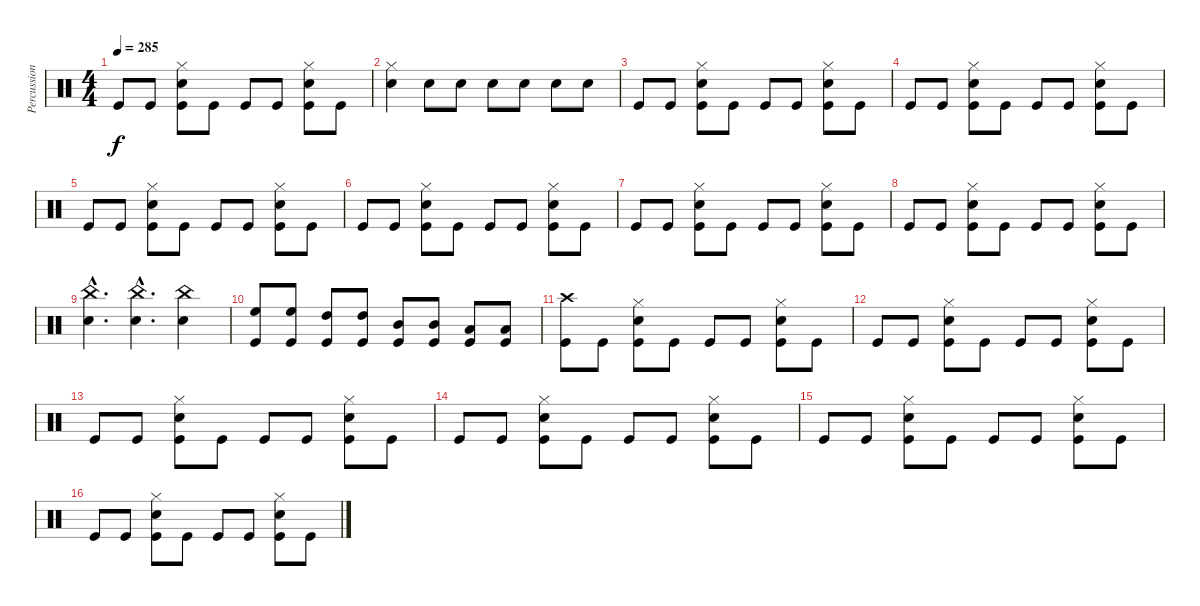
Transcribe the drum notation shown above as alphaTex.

\track ("Percussion" "Percussion") {instrument percussion}
\staff {score}
\articulation defaults
\ts (4 4)
\tempo 285
\clef neutral
\ks c "Kick (hit)".8{dy f} "Kick (hit)".8
("Snare (hit) 2" "Hi-Hat (closed)" "Kick (hit)").8 "Kick (hit)".8 "Kick (hit)".8 "Kick (hit)".8 ("Snare (hit) 2" "Hi-Hat (closed)" "Kick (hit)").8 "Kick (hit)".8 |
("Snare (hit) 2" "Hi-Hat (closed)").4 "Snare (hit) 2".8 "Snare (hit) 2".8 "Snare (hit) 2".8 "Snare (hit) 2".8 "Snare (hit) 2".8 "Snare (hit) 2".8 |
"Kick (hit)".8 "Kick (hit)".8 ("Snare (hit) 2" "Hi-Hat (closed)" "Kick (hit)").8 "Kick (hit)".8 "Kick (hit)".8 "Kick (hit)".8 ("Snare (hit) 2" "Hi-Hat (closed)" "Kick (hit)").8 "Kick (hit)".8 |
"Kick (hit)".8 "Kick (hit)".8 ("Snare (hit) 2" "Hi-Hat (closed)" "Kick (hit)").8 "Kick (hit)".8 "Kick (hit)".8 "Kick (hit)".8 ("Snare (hit) 2" "Hi-Hat (closed)" "Kick (hit)").8 "Kick (hit)".8 |
"Kick (hit)".8 "Kick (hit)".8 ("Snare (hit) 2" "Hi-Hat (closed)" "Kick (hit)").8 "Kick (hit)".8 "Kick (hit)".8 "Kick (hit)".8 ("Snare (hit) 2" "Hi-Hat (closed)" "Kick (hit)").8 "Kick (hit)".8 |
"Kick (hit)".8 "Kick (hit)".8 ("Snare (hit) 2" "Hi-Hat (closed)" "Kick (hit)").8 "Kick (hit)".8 "Kick (hit)".8 "Kick (hit)".8 ("Snare (hit) 2" "Hi-Hat (closed)" "Kick (hit)").8 "Kick (hit)".8 |
"Kick (hit)".8 "Kick (hit)".8 ("Snare (hit) 2" "Hi-Hat (closed)" "Kick (hit)").8 "Kick (hit)".8 "Kick (hit)".8 "Kick (hit)".8 ("Snare (hit) 2" "Hi-Hat (closed)" "Kick (hit)").8 "Kick (hit)".8 |
"Kick (hit)".8 "Kick (hit)".8 ("Snare (hit) 2" "Hi-Hat (closed)" "Kick (hit)").8 "Kick (hit)".8 "Kick (hit)".8 "Kick (hit)".8 ("Snare (hit) 2" "Hi-Hat (closed)" "Kick (hit)").8 "Kick (hit)".8 |
("Snare (hit) 2"{hac} "China (hit)"{hac}).4{d} ("Snare (hit) 2"{hac} "China (hit)"{hac}).4{d} ("Snare (hit) 2" "China (hit)").4 |
("High Floor Tom (hit)" "Kick (hit)").8 ("High Floor Tom (hit)" "Kick (hit)").8 ("High Tom (hit)" "Kick (hit)").8 ("High Tom (hit)" "Kick (hit)").8 ("Mid Tom (hit)" "Kick (hit)").8 ("Mid Tom (hit)" "Kick (hit)").8 ("Low Tom (hit)" "Kick (hit)").8 ("Low Tom (hit)" "Kick (hit)").8 |
("Crash high (hit)" "Kick (hit)").8 "Kick (hit)".8 ("Snare (hit) 2" "Hi-Hat (closed)" "Kick (hit)").8 "Kick (hit)".8 "Kick (hit)".8 "Kick (hit)".8 ("Snare (hit) 2" "Hi-Hat (closed)" "Kick (hit)").8 "Kick (hit)".8 |
"Kick (hit)".8 "Kick (hit)".8 ("Snare (hit) 2" "Hi-Hat (closed)" "Kick (hit)").8 "Kick (hit)".8 "Kick (hit)".8 "Kick (hit)".8 ("Snare (hit) 2" "Hi-Hat (closed)" "Kick (hit)").8 "Kick (hit)".8 |
"Kick (hit)".8 "Kick (hit)".8 ("Snare (hit) 2" "Hi-Hat (closed)" "Kick (hit)").8 "Kick (hit)".8 "Kick (hit)".8 "Kick (hit)".8 ("Snare (hit) 2" "Hi-Hat (closed)" "Kick (hit)").8 "Kick (hit)".8 |
"Kick (hit)".8 "Kick (hit)".8 ("Snare (hit) 2" "Hi-Hat (closed)" "Kick (hit)").8 "Kick (hit)".8 "Kick (hit)".8 "Kick (hit)".8 ("Snare (hit) 2" "Hi-Hat (closed)" "Kick (hit)").8 "Kick (hit)".8 |
"Kick (hit)".8 "Kick (hit)".8 ("Snare (hit) 2" "Hi-Hat (closed)" "Kick (hit)").8 "Kick (hit)".8 "Kick (hit)".8 "Kick (hit)".8 ("Snare (hit) 2" "Hi-Hat (closed)" "Kick (hit)").8 "Kick (hit)".8 |
"Kick (hit)".8 "Kick (hit)".8 ("Snare (hit) 2" "Hi-Hat (closed)" "Kick (hit)").8 "Kick (hit)".8 "Kick (hit)".8 "Kick (hit)".8 ("Snare (hit) 2" "Hi-Hat (closed)" "Kick (hit)").8 "Kick (hit)".8
